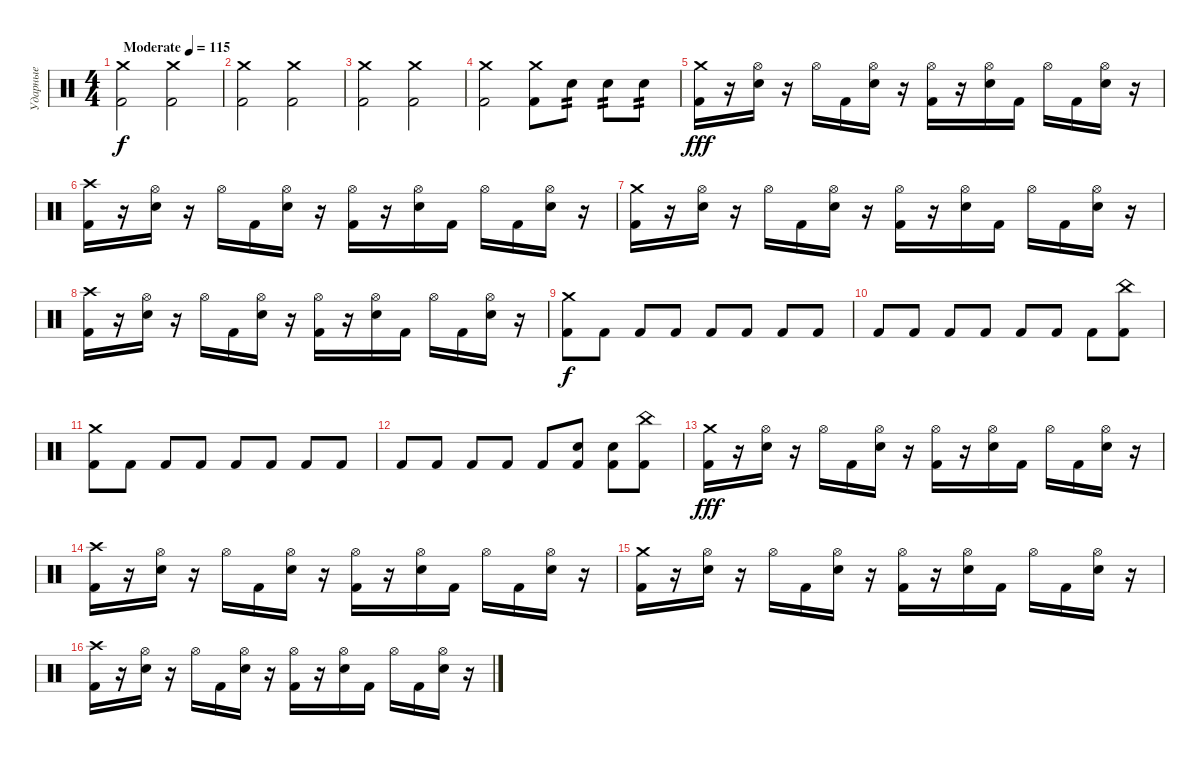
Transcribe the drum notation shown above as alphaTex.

\track ("Ударные" "Ударные") {instrument percussion}
\staff {score}
\articulation defaults
\ts (4 4)
\tempo (115 "Moderate")
\clef neutral
\ks c
("Kick (hit) 2" "Crash medium (hit)").2{dy f} ("Kick (hit) 2" "Crash medium (hit)").2 |
("Crash medium (hit)" "Kick (hit) 2").2 ("Crash medium (hit)" "Kick (hit) 2").2 |
("Kick (hit) 2" "Crash medium (hit)").2 ("Kick (hit) 2" "Crash medium (hit)").2 |
("Crash medium (hit)" "Kick (hit) 2").2 ("Crash medium (hit)" "Kick (hit) 2").8 "Electric Snare (hit)".8{tp 2} "Electric Snare (hit)".8{tp 2} "Electric Snare (hit)".8{tp 2} |
("Crash medium (hit)" "Kick (hit) 2").16{dy fff} r.16 ("Electric Snare (hit)" "Hi-Hat (open)").16 r.16 "Hi-Hat (open)".16 "Kick (hit) 2".16 ("Electric Snare (hit)" "Hi-Hat (open)").16 r.16 ("Kick (hit) 2" "Hi-Hat (open)").16 r.16 ("Electric Snare (hit)" "Hi-Hat (open)").16 "Kick (hit) 2".16 "Hi-Hat (open)".16 "Kick (hit) 2".16 ("Electric Snare (hit)" "Hi-Hat (open)").16 r.16 |
("Crash high (hit)" "Kick (hit) 2").16 r.16 ("Electric Snare (hit)" "Hi-Hat (open)").16 r.16 "Hi-Hat (open)".16 "Kick (hit) 2".16 ("Electric Snare (hit)" "Hi-Hat (open)").16 r.16 ("Kick (hit) 2" "Hi-Hat (open)").16 r.16 ("Electric Snare (hit)" "Hi-Hat (open)").16 "Kick (hit) 2".16 "Hi-Hat (open)".16 "Kick (hit) 2".16 ("Electric Snare (hit)" "Hi-Hat (open)").16 r.16 |
("Crash medium (hit)" "Kick (hit) 2").16 r.16 ("Electric Snare (hit)" "Hi-Hat (open)").16 r.16 "Hi-Hat (open)".16 "Kick (hit) 2".16 ("Electric Snare (hit)" "Hi-Hat (open)").16 r.16 ("Kick (hit) 2" "Hi-Hat (open)").16 r.16 ("Electric Snare (hit)" "Hi-Hat (open)").16 "Kick (hit) 2".16 "Hi-Hat (open)".16 "Kick (hit) 2".16 ("Electric Snare (hit)" "Hi-Hat (open)").16 r.16 |
("Crash high (hit)" "Kick (hit) 2").16 r.16 ("Electric Snare (hit)" "Hi-Hat (open)").16 r.16 "Hi-Hat (open)".16 "Kick (hit) 2".16 ("Electric Snare (hit)" "Hi-Hat (open)").16 r.16 ("Kick (hit) 2" "Hi-Hat (open)").16 r.16 ("Electric Snare (hit)" "Hi-Hat (open)").16 "Kick (hit) 2".16 "Hi-Hat (open)".16 "Kick (hit) 2".16 ("Electric Snare (hit)" "Hi-Hat (open)").16 r.16 |
("Crash medium (hit)" "Kick (hit) 2").8{dy f} "Kick (hit) 2".8 "Kick (hit) 2".8 "Kick (hit) 2".8 "Kick (hit) 2".8 "Kick (hit) 2".8 "Kick (hit) 2".8 "Kick (hit) 2".8 |
"Kick (hit) 2".8 "Kick (hit) 2".8 "Kick (hit) 2".8 "Kick (hit) 2".8 "Kick (hit) 2".8 "Kick (hit) 2".8 "Kick (hit) 2".8 ("China (hit)" "Kick (hit) 2").8 |
("Crash medium (hit)" "Kick (hit) 2").8 "Kick (hit) 2".8 "Kick (hit) 2".8 "Kick (hit) 2".8 "Kick (hit) 2".8 "Kick (hit) 2".8 "Kick (hit) 2".8 "Kick (hit) 2".8 |
"Kick (hit) 2".8 "Kick (hit) 2".8 "Kick (hit) 2".8 "Kick (hit) 2".8 "Kick (hit) 2".8 ("Electric Snare (hit)" "Kick (hit) 2").8 ("Electric Snare (hit)" "Kick (hit) 2").8 ("China (hit)" "Kick (hit) 2").8 |
("Crash medium (hit)" "Kick (hit) 2").16{dy fff} r.16 ("Electric Snare (hit)" "Hi-Hat (open)").16 r.16 "Hi-Hat (open)".16 "Kick (hit) 2".16 ("Electric Snare (hit)" "Hi-Hat (open)").16 r.16 ("Kick (hit) 2" "Hi-Hat (open)").16 r.16 ("Electric Snare (hit)" "Hi-Hat (open)").16 "Kick (hit) 2".16 "Hi-Hat (open)".16 "Kick (hit) 2".16 ("Electric Snare (hit)" "Hi-Hat (open)").16 r.16 |
("Crash high (hit)" "Kick (hit) 2").16 r.16 ("Electric Snare (hit)" "Hi-Hat (open)").16 r.16 "Hi-Hat (open)".16 "Kick (hit) 2".16 ("Electric Snare (hit)" "Hi-Hat (open)").16 r.16 ("Kick (hit) 2" "Hi-Hat (open)").16 r.16 ("Electric Snare (hit)" "Hi-Hat (open)").16 "Kick (hit) 2".16 "Hi-Hat (open)".16 "Kick (hit) 2".16 ("Electric Snare (hit)" "Hi-Hat (open)").16 r.16 |
("Crash medium (hit)" "Kick (hit) 2").16 r.16 ("Electric Snare (hit)" "Hi-Hat (open)").16 r.16 "Hi-Hat (open)".16 "Kick (hit) 2".16 ("Electric Snare (hit)" "Hi-Hat (open)").16 r.16 ("Kick (hit) 2" "Hi-Hat (open)").16 r.16 ("Electric Snare (hit)" "Hi-Hat (open)").16 "Kick (hit) 2".16 "Hi-Hat (open)".16 "Kick (hit) 2".16 ("Electric Snare (hit)" "Hi-Hat (open)").16 r.16 |
("Crash high (hit)" "Kick (hit) 2").16 r.16 ("Electric Snare (hit)" "Hi-Hat (open)").16 r.16 "Hi-Hat (open)".16 "Kick (hit) 2".16 ("Electric Snare (hit)" "Hi-Hat (open)").16 r.16 ("Kick (hit) 2" "Hi-Hat (open)").16 r.16 ("Electric Snare (hit)" "Hi-Hat (open)").16 "Kick (hit) 2".16 "Hi-Hat (open)".16 "Kick (hit) 2".16 ("Electric Snare (hit)" "Hi-Hat (open)").16 r.16
